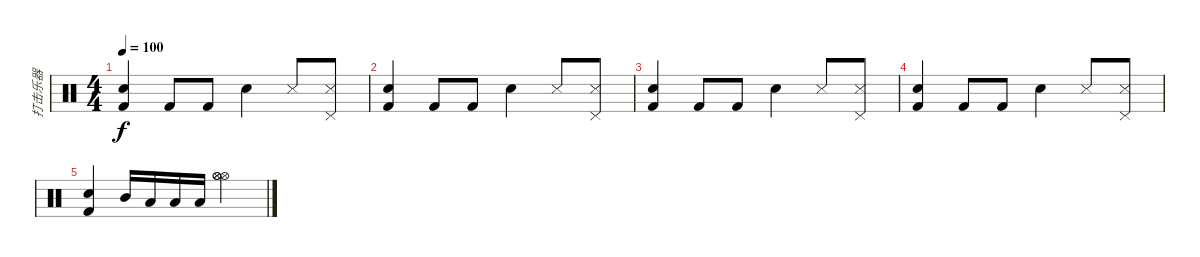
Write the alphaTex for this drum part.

\track ("打击乐器" "打击乐器") {instrument percussion}
\staff {score}
\articulation defaults
\ts (4 4)
\tempo 100
\clef neutral
\ks c
("Snare (hit) 2" "Kick (hit) 2").4{dy f} "Kick (hit) 2".8 "Kick (hit) 2".8 "Snare (hit) 2".4 "Snare (side stick) 3".8 ("Snare (side stick) 3" "Pedal Hi-Hat (hit)").8 |
("Snare (hit) 2" "Kick (hit) 2").4 "Kick (hit) 2".8 "Kick (hit) 2".8 "Snare (hit) 2".4 "Snare (side stick) 3".8 ("Snare (side stick) 3" "Pedal Hi-Hat (hit)").8 |
("Snare (hit) 2" "Kick (hit) 2").4 "Kick (hit) 2".8 "Kick (hit) 2".8 "Snare (hit) 2".4 "Snare (side stick) 3".8 ("Snare (side stick) 3" "Pedal Hi-Hat (hit)").8 |
("Snare (hit) 2" "Kick (hit) 2").4 "Kick (hit) 2".8 "Kick (hit) 2".8 "Snare (hit) 2".4 "Snare (side stick) 3".8 ("Snare (side stick) 3" "Pedal Hi-Hat (hit)").8 |
("Snare (hit) 2" "Kick (hit) 2").4 "Mid Tom (hit)".16 "Low Tom (hit)".16 "Low Floor Tom (hit)".16 "Low Floor Tom (hit)".16 ("Hi-Hat (open)" "Hi-Hat (open)" "Hi-Hat (open)").2
